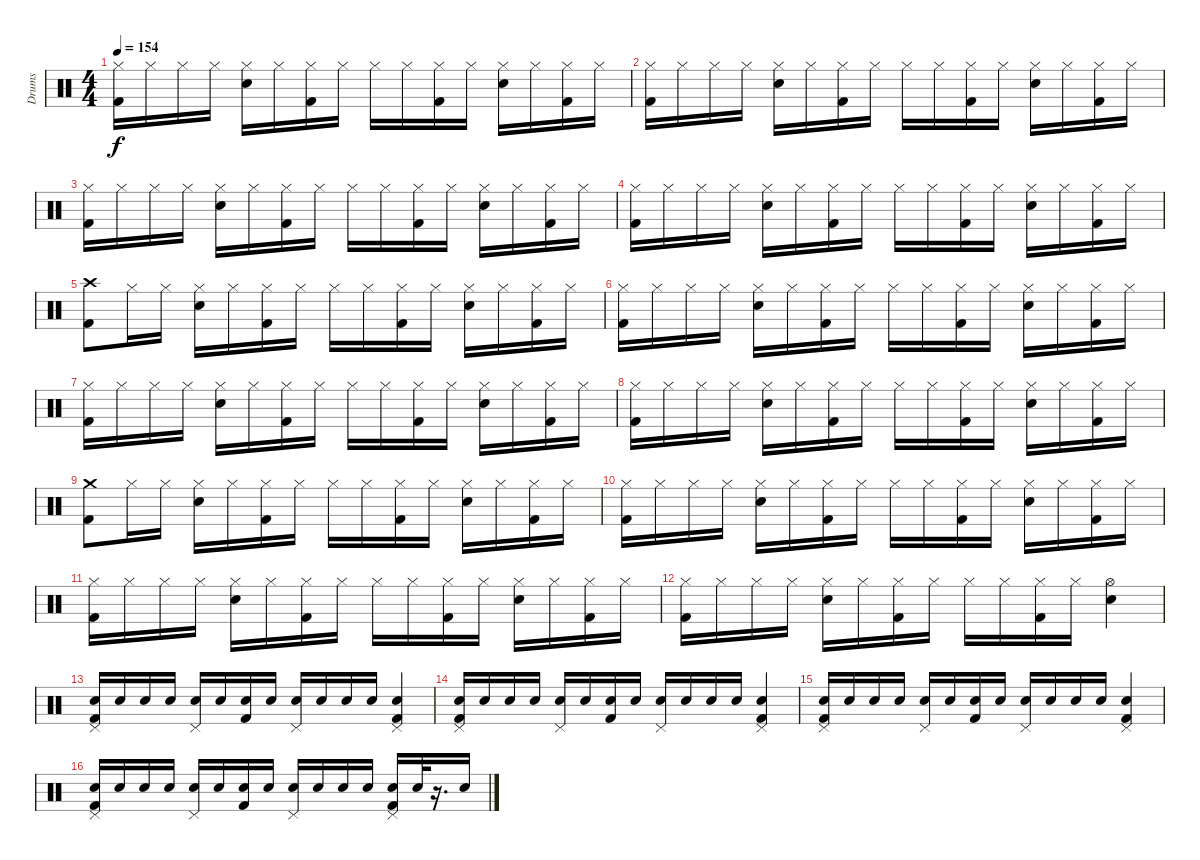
\track ("Drums" "Drums") {instrument percussion}
\staff {score}
\articulation defaults
\ts (4 4)
\tempo 154
\clef neutral
\ks c
("Hi-Hat (closed)" "Kick (hit) 2").16{dy f} "Hi-Hat (closed)".16 "Hi-Hat (closed)".16 "Hi-Hat (closed)".16 ("Hi-Hat (closed)" "Electric Snare (hit)").16 "Hi-Hat (closed)".16 ("Kick (hit) 2" "Hi-Hat (closed)").16 "Hi-Hat (closed)".16 "Hi-Hat (closed)".16 "Hi-Hat (closed)".16 ("Kick (hit) 2" "Hi-Hat (closed)").16 "Hi-Hat (closed)".16 ("Electric Snare (hit)" "Hi-Hat (closed)").16 "Hi-Hat (closed)".16 ("Kick (hit) 2" "Hi-Hat (closed)").16 "Hi-Hat (closed)".16 |
("Hi-Hat (closed)" "Kick (hit) 2").16 "Hi-Hat (closed)".16 "Hi-Hat (closed)".16 "Hi-Hat (closed)".16 ("Hi-Hat (closed)" "Electric Snare (hit)").16 "Hi-Hat (closed)".16 ("Kick (hit) 2" "Hi-Hat (closed)").16 "Hi-Hat (closed)".16 "Hi-Hat (closed)".16 "Hi-Hat (closed)".16 ("Kick (hit) 2" "Hi-Hat (closed)").16 "Hi-Hat (closed)".16 ("Electric Snare (hit)" "Hi-Hat (closed)").16 "Hi-Hat (closed)".16 ("Kick (hit) 2" "Hi-Hat (closed)").16 "Hi-Hat (closed)".16 |
("Hi-Hat (closed)" "Kick (hit) 2").16 "Hi-Hat (closed)".16 "Hi-Hat (closed)".16 "Hi-Hat (closed)".16 ("Hi-Hat (closed)" "Electric Snare (hit)").16 "Hi-Hat (closed)".16 ("Kick (hit) 2" "Hi-Hat (closed)").16 "Hi-Hat (closed)".16 "Hi-Hat (closed)".16 "Hi-Hat (closed)".16 ("Kick (hit) 2" "Hi-Hat (closed)").16 "Hi-Hat (closed)".16 ("Electric Snare (hit)" "Hi-Hat (closed)").16 "Hi-Hat (closed)".16 ("Kick (hit) 2" "Hi-Hat (closed)").16 "Hi-Hat (closed)".16 |
("Hi-Hat (closed)" "Kick (hit) 2").16 "Hi-Hat (closed)".16 "Hi-Hat (closed)".16 "Hi-Hat (closed)".16 ("Hi-Hat (closed)" "Electric Snare (hit)").16 "Hi-Hat (closed)".16 ("Kick (hit) 2" "Hi-Hat (closed)").16 "Hi-Hat (closed)".16 "Hi-Hat (closed)".16 "Hi-Hat (closed)".16 ("Kick (hit) 2" "Hi-Hat (closed)").16 "Hi-Hat (closed)".16 ("Electric Snare (hit)" "Hi-Hat (closed)").16 "Hi-Hat (closed)".16 ("Kick (hit) 2" "Hi-Hat (closed)").16 "Hi-Hat (closed)".16 |
("Crash high (hit)" "Kick (hit) 2").8 "Hi-Hat (closed)".16 "Hi-Hat (closed)".16 ("Hi-Hat (closed)" "Electric Snare (hit)").16 "Hi-Hat (closed)".16 ("Kick (hit) 2" "Hi-Hat (closed)").16 "Hi-Hat (closed)".16 "Hi-Hat (closed)".16 "Hi-Hat (closed)".16 ("Kick (hit) 2" "Hi-Hat (closed)").16 "Hi-Hat (closed)".16 ("Electric Snare (hit)" "Hi-Hat (closed)").16 "Hi-Hat (closed)".16 ("Kick (hit) 2" "Hi-Hat (closed)").16 "Hi-Hat (closed)".16 |
("Hi-Hat (closed)" "Kick (hit) 2").16 "Hi-Hat (closed)".16 "Hi-Hat (closed)".16 "Hi-Hat (closed)".16 ("Hi-Hat (closed)" "Electric Snare (hit)").16 "Hi-Hat (closed)".16 ("Kick (hit) 2" "Hi-Hat (closed)").16 "Hi-Hat (closed)".16 "Hi-Hat (closed)".16 "Hi-Hat (closed)".16 ("Kick (hit) 2" "Hi-Hat (closed)").16 "Hi-Hat (closed)".16 ("Electric Snare (hit)" "Hi-Hat (closed)").16 "Hi-Hat (closed)".16 ("Kick (hit) 2" "Hi-Hat (closed)").16 "Hi-Hat (closed)".16 |
("Hi-Hat (closed)" "Kick (hit) 2").16 "Hi-Hat (closed)".16 "Hi-Hat (closed)".16 "Hi-Hat (closed)".16 ("Hi-Hat (closed)" "Electric Snare (hit)").16 "Hi-Hat (closed)".16 ("Kick (hit) 2" "Hi-Hat (closed)").16 "Hi-Hat (closed)".16 "Hi-Hat (closed)".16 "Hi-Hat (closed)".16 ("Kick (hit) 2" "Hi-Hat (closed)").16 "Hi-Hat (closed)".16 ("Electric Snare (hit)" "Hi-Hat (closed)").16 "Hi-Hat (closed)".16 ("Kick (hit) 2" "Hi-Hat (closed)").16 "Hi-Hat (closed)".16 |
("Hi-Hat (closed)" "Kick (hit) 2").16 "Hi-Hat (closed)".16 "Hi-Hat (closed)".16 "Hi-Hat (closed)".16 ("Hi-Hat (closed)" "Electric Snare (hit)").16 "Hi-Hat (closed)".16 ("Kick (hit) 2" "Hi-Hat (closed)").16 "Hi-Hat (closed)".16 "Hi-Hat (closed)".16 "Hi-Hat (closed)".16 ("Kick (hit) 2" "Hi-Hat (closed)").16 "Hi-Hat (closed)".16 ("Electric Snare (hit)" "Hi-Hat (closed)").16 "Hi-Hat (closed)".16 ("Kick (hit) 2" "Hi-Hat (closed)").16 "Hi-Hat (closed)".16 |
("Crash medium (hit)" "Kick (hit) 2").8 "Hi-Hat (closed)".16 "Hi-Hat (closed)".16 ("Hi-Hat (closed)" "Electric Snare (hit)").16 "Hi-Hat (closed)".16 ("Kick (hit) 2" "Hi-Hat (closed)").16 "Hi-Hat (closed)".16 "Hi-Hat (closed)".16 "Hi-Hat (closed)".16 ("Kick (hit) 2" "Hi-Hat (closed)").16 "Hi-Hat (closed)".16 ("Electric Snare (hit)" "Hi-Hat (closed)").16 "Hi-Hat (closed)".16 ("Kick (hit) 2" "Hi-Hat (closed)").16 "Hi-Hat (closed)".16 |
("Hi-Hat (closed)" "Kick (hit) 2").16 "Hi-Hat (closed)".16 "Hi-Hat (closed)".16 "Hi-Hat (closed)".16 ("Hi-Hat (closed)" "Electric Snare (hit)").16 "Hi-Hat (closed)".16 ("Kick (hit) 2" "Hi-Hat (closed)").16 "Hi-Hat (closed)".16 "Hi-Hat (closed)".16 "Hi-Hat (closed)".16 ("Kick (hit) 2" "Hi-Hat (closed)").16 "Hi-Hat (closed)".16 ("Electric Snare (hit)" "Hi-Hat (closed)").16 "Hi-Hat (closed)".16 ("Kick (hit) 2" "Hi-Hat (closed)").16 "Hi-Hat (closed)".16 |
("Hi-Hat (closed)" "Kick (hit) 2").16 "Hi-Hat (closed)".16 "Hi-Hat (closed)".16 "Hi-Hat (closed)".16 ("Hi-Hat (closed)" "Electric Snare (hit)").16 "Hi-Hat (closed)".16 ("Kick (hit) 2" "Hi-Hat (closed)").16 "Hi-Hat (closed)".16 "Hi-Hat (closed)".16 "Hi-Hat (closed)".16 ("Kick (hit) 2" "Hi-Hat (closed)").16 "Hi-Hat (closed)".16 ("Electric Snare (hit)" "Hi-Hat (closed)").16 "Hi-Hat (closed)".16 ("Kick (hit) 2" "Hi-Hat (closed)").16 "Hi-Hat (closed)".16 |
("Hi-Hat (closed)" "Kick (hit) 2").16 "Hi-Hat (closed)".16 "Hi-Hat (closed)".16 "Hi-Hat (closed)".16 ("Hi-Hat (closed)" "Electric Snare (hit)").16 "Hi-Hat (closed)".16 ("Kick (hit) 2" "Hi-Hat (closed)").16 "Hi-Hat (closed)".16 "Hi-Hat (closed)".16 "Hi-Hat (closed)".16 ("Kick (hit) 2" "Hi-Hat (closed)").16 "Hi-Hat (closed)".16 ("Hi-Hat (open)" "Electric Snare (hit)").4 |
("Pedal Hi-Hat (hit)" "Electric Snare (hit)" "Kick (hit) 2").16 "Electric Snare (hit)".16 "Electric Snare (hit)".16 "Electric Snare (hit)".16 ("Pedal Hi-Hat (hit)" "Electric Snare (hit)").16 "Electric Snare (hit)".16 ("Kick (hit) 2" "Electric Snare (hit)").16 "Electric Snare (hit)".16 ("Pedal Hi-Hat (hit)" "Electric Snare (hit)").16 "Electric Snare (hit)".16 "Electric Snare (hit)".16 "Electric Snare (hit)".16 ("Kick (hit) 2" "Electric Snare (hit)" "Pedal Hi-Hat (hit)").4 |
("Pedal Hi-Hat (hit)" "Electric Snare (hit)" "Kick (hit) 2").16 "Electric Snare (hit)".16 "Electric Snare (hit)".16 "Electric Snare (hit)".16 ("Pedal Hi-Hat (hit)" "Electric Snare (hit)").16 "Electric Snare (hit)".16 ("Kick (hit) 2" "Electric Snare (hit)").16 "Electric Snare (hit)".16 ("Pedal Hi-Hat (hit)" "Electric Snare (hit)").16 "Electric Snare (hit)".16 "Electric Snare (hit)".16 "Electric Snare (hit)".16 ("Kick (hit) 2" "Electric Snare (hit)" "Pedal Hi-Hat (hit)").4 |
("Pedal Hi-Hat (hit)" "Electric Snare (hit)" "Kick (hit) 2").16 "Electric Snare (hit)".16 "Electric Snare (hit)".16 "Electric Snare (hit)".16 ("Pedal Hi-Hat (hit)" "Electric Snare (hit)").16 "Electric Snare (hit)".16 ("Kick (hit) 2" "Electric Snare (hit)").16 "Electric Snare (hit)".16 ("Pedal Hi-Hat (hit)" "Electric Snare (hit)").16 "Electric Snare (hit)".16 "Electric Snare (hit)".16 "Electric Snare (hit)".16 ("Kick (hit) 2" "Electric Snare (hit)" "Pedal Hi-Hat (hit)").4 |
("Pedal Hi-Hat (hit)" "Electric Snare (hit)" "Kick (hit) 2").16 "Electric Snare (hit)".16 "Electric Snare (hit)".16 "Electric Snare (hit)".16 ("Pedal Hi-Hat (hit)" "Electric Snare (hit)").16 "Electric Snare (hit)".16 ("Kick (hit) 2" "Electric Snare (hit)").16 "Electric Snare (hit)".16 ("Pedal Hi-Hat (hit)" "Electric Snare (hit)").16 "Electric Snare (hit)".16 "Electric Snare (hit)".16 "Electric Snare (hit)".16 ("Kick (hit) 2" "Electric Snare (hit)" "Pedal Hi-Hat (hit)").16 "Electric Snare (hit)".32 r.16{d} "Electric Snare (hit)".16
